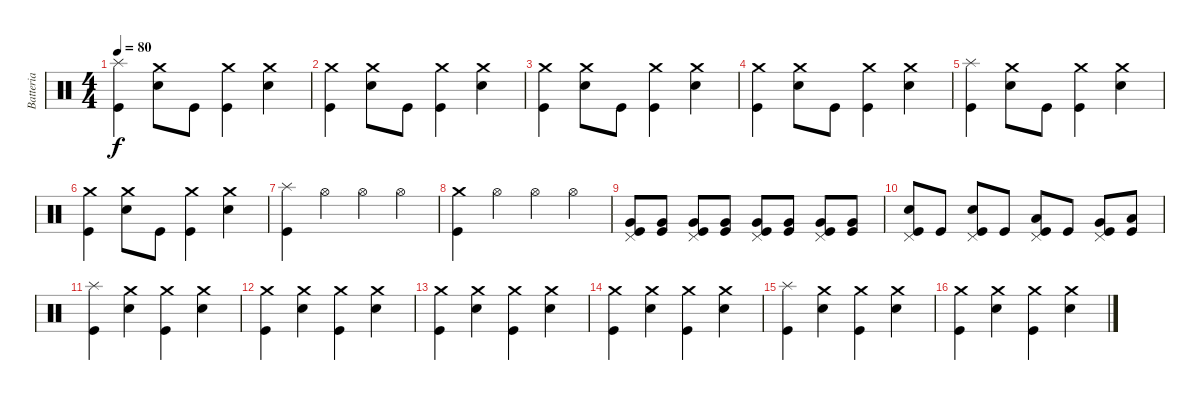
\track ("Batteria" "Batteria") {instrument percussion}
\staff {score}
\articulation defaults
\ts (4 4)
\tempo 80
\clef neutral
\ks c
("Splash (hit)" "Kick (hit)").4{dy f} ("Crash medium (hit)" "Electric Snare (hit)").8 "Kick (hit)".8 ("Kick (hit)" "Crash medium (hit)").4 ("Crash medium (hit)" "Electric Snare (hit)").4 |
("Crash medium (hit)" "Kick (hit)").4 ("Crash medium (hit)" "Electric Snare (hit)").8 "Kick (hit)".8 ("Crash medium (hit)" "Kick (hit)").4 ("Crash medium (hit)" "Electric Snare (hit)").4 |
("Crash medium (hit)" "Kick (hit)").4 ("Crash medium (hit)" "Electric Snare (hit)").8 "Kick (hit)".8 ("Crash medium (hit)" "Kick (hit)").4 ("Crash medium (hit)" "Electric Snare (hit)").4 |
("Crash medium (hit)" "Kick (hit)").4 ("Crash medium (hit)" "Electric Snare (hit)").8 "Kick (hit)".8 ("Crash medium (hit)" "Kick (hit)").4 ("Crash medium (hit)" "Electric Snare (hit)").4 |
("Splash (hit)" "Kick (hit)").4 ("Crash medium (hit)" "Electric Snare (hit)").8 "Kick (hit)".8 ("Kick (hit)" "Crash medium (hit)").4 ("Crash medium (hit)" "Electric Snare (hit)").4 |
("Crash medium (hit)" "Kick (hit)").4 ("Crash medium (hit)" "Electric Snare (hit)").8 "Kick (hit)".8 ("Crash medium (hit)" "Kick (hit)").4 ("Crash medium (hit)" "Electric Snare (hit)").4 |
("Kick (hit)" "Splash (hit)").4 "Hi-Hat (open)".4 "Hi-Hat (open)".4 "Hi-Hat (open)".4 |
("Kick (hit)" "Crash medium (hit)").4 "Hi-Hat (open)".4 "Hi-Hat (open)".4 "Hi-Hat (open)".4 |
("Pedal Hi-Hat (hit)" "Very Low Tom (hit)" "Kick (hit)").8 ("Very Low Tom (hit)" "Kick (hit)").8 ("Pedal Hi-Hat (hit)" "Very Low Tom (hit)" "Kick (hit)").8 ("Very Low Tom (hit)" "Kick (hit)").8 ("Pedal Hi-Hat (hit)" "Very Low Tom (hit)" "Kick (hit)").8 ("Very Low Tom (hit)" "Kick (hit)").8 ("Pedal Hi-Hat (hit)" "Very Low Tom (hit)" "Kick (hit)").8 ("Very Low Tom (hit)" "Kick (hit)").8 |
("Pedal Hi-Hat (hit)" "Kick (hit)" "Electric Snare (hit)").8 "Kick (hit)".8 ("Pedal Hi-Hat (hit)" "Kick (hit)" "Electric Snare (hit)").8 "Kick (hit)".8 ("Pedal Hi-Hat (hit)" "Kick (hit)" "Low Tom (hit)").8 "Kick (hit)".8 ("Pedal Hi-Hat (hit)" "Very Low Tom (hit)" "Kick (hit)").8 ("Kick (hit)" "Low Floor Tom (hit)").8 |
("Splash (hit)" "Kick (hit)").4 ("Crash medium (hit)" "Electric Snare (hit)").4 ("Crash medium (hit)" "Kick (hit)").4 ("Crash medium (hit)" "Electric Snare (hit)").4 |
("Crash medium (hit)" "Kick (hit)").4 ("Crash medium (hit)" "Electric Snare (hit)").4 ("Crash medium (hit)" "Kick (hit)").4 ("Crash medium (hit)" "Electric Snare (hit)").4 |
("Crash medium (hit)" "Kick (hit)").4 ("Crash medium (hit)" "Electric Snare (hit)").4 ("Crash medium (hit)" "Kick (hit)").4 ("Crash medium (hit)" "Electric Snare (hit)").4 |
("Crash medium (hit)" "Kick (hit)").4 ("Crash medium (hit)" "Electric Snare (hit)").4 ("Crash medium (hit)" "Kick (hit)").4 ("Crash medium (hit)" "Electric Snare (hit)").4 |
("Splash (hit)" "Kick (hit)").4 ("Crash medium (hit)" "Electric Snare (hit)").4 ("Crash medium (hit)" "Kick (hit)").4 ("Crash medium (hit)" "Electric Snare (hit)").4 |
("Crash medium (hit)" "Kick (hit)").4 ("Crash medium (hit)" "Electric Snare (hit)").4 ("Crash medium (hit)" "Kick (hit)").4 ("Crash medium (hit)" "Electric Snare (hit)").4
